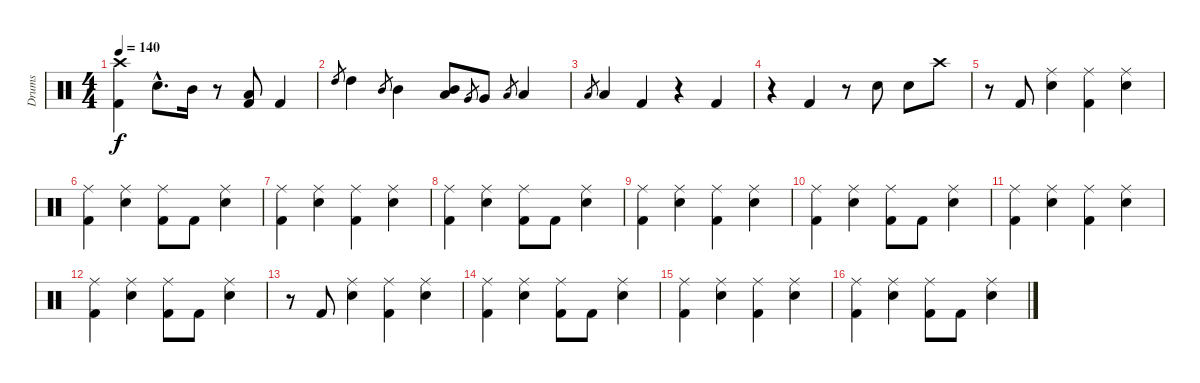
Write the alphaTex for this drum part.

\track ("Drums" "Drums") {instrument percussion}
\staff {score}
\articulation defaults
\ts (4 4)
\tempo 140
\clef neutral
\ks c
("Crash high (hit)" "Kick (hit) 2").4{dy f} "Electric Snare (hit)"{hac}.8{d} "Mid Tom (hit)".16 r.8 ("Low Tom (hit)" "Kick (hit) 2").8 "Kick (hit) 2".4 |
"High Tom (hit)".8{gr} "High Tom (hit)".4 "Mid Tom (hit)".8{gr} "Mid Tom (hit)".4 ("Mid Tom (hit)" "Low Tom (hit)").8 "Very Low Tom (hit)".8{gr} "Very Low Tom (hit)".8 "Low Floor Tom (hit)".8{gr} "Low Floor Tom (hit)".4 |
"Low Floor Tom (hit)".8{gr} "Low Floor Tom (hit)".4 "Kick (hit) 2".4 r.4 "Kick (hit) 2".4 |
r.4 "Kick (hit) 2".4 r.8 "Electric Snare (hit)".8 "Electric Snare (hit)".8 "Crash high (hit)".8 |
r.8 "Kick (hit) 2".8 ("Ride (middle)" "Electric Snare (hit)").4 ("Ride (middle)" "Kick (hit) 2").4 ("Ride (middle)" "Electric Snare (hit)").4 |
("Ride (middle)" "Kick (hit) 2").4 ("Ride (middle)" "Electric Snare (hit)").4 ("Ride (middle)" "Kick (hit) 2").8 "Kick (hit) 2".8 ("Ride (middle)" "Electric Snare (hit)").4 |
("Ride (middle)" "Kick (hit) 2").4 ("Ride (middle)" "Electric Snare (hit)").4 ("Ride (middle)" "Kick (hit) 2").4 ("Ride (middle)" "Electric Snare (hit)").4 |
("Ride (middle)" "Kick (hit) 2").4 ("Ride (middle)" "Electric Snare (hit)").4 ("Ride (middle)" "Kick (hit) 2").8 "Kick (hit) 2".8 ("Ride (middle)" "Electric Snare (hit)").4 |
("Ride (middle)" "Kick (hit) 2").4 ("Ride (middle)" "Electric Snare (hit)").4 ("Ride (middle)" "Kick (hit) 2").4 ("Ride (middle)" "Electric Snare (hit)").4 |
("Ride (middle)" "Kick (hit) 2").4 ("Ride (middle)" "Electric Snare (hit)").4 ("Ride (middle)" "Kick (hit) 2").8 "Kick (hit) 2".8 ("Ride (middle)" "Electric Snare (hit)").4 |
("Ride (middle)" "Kick (hit) 2").4 ("Ride (middle)" "Electric Snare (hit)").4 ("Ride (middle)" "Kick (hit) 2").4 ("Ride (middle)" "Electric Snare (hit)").4 |
("Ride (middle)" "Kick (hit) 2").4 ("Ride (middle)" "Electric Snare (hit)").4 ("Ride (middle)" "Kick (hit) 2").8 "Kick (hit) 2".8 ("Ride (middle)" "Electric Snare (hit)").4 |
r.8 "Kick (hit) 2".8 ("Ride (middle)" "Electric Snare (hit)").4 ("Ride (middle)" "Kick (hit) 2").4 ("Ride (middle)" "Electric Snare (hit)").4 |
("Ride (middle)" "Kick (hit) 2").4 ("Ride (middle)" "Electric Snare (hit)").4 ("Ride (middle)" "Kick (hit) 2").8 "Kick (hit) 2".8 ("Ride (middle)" "Electric Snare (hit)").4 |
("Ride (middle)" "Kick (hit) 2").4 ("Ride (middle)" "Electric Snare (hit)").4 ("Ride (middle)" "Kick (hit) 2").4 ("Ride (middle)" "Electric Snare (hit)").4 |
("Ride (middle)" "Kick (hit) 2").4 ("Ride (middle)" "Electric Snare (hit)").4 ("Ride (middle)" "Kick (hit) 2").8 "Kick (hit) 2".8 ("Ride (middle)" "Electric Snare (hit)").4
